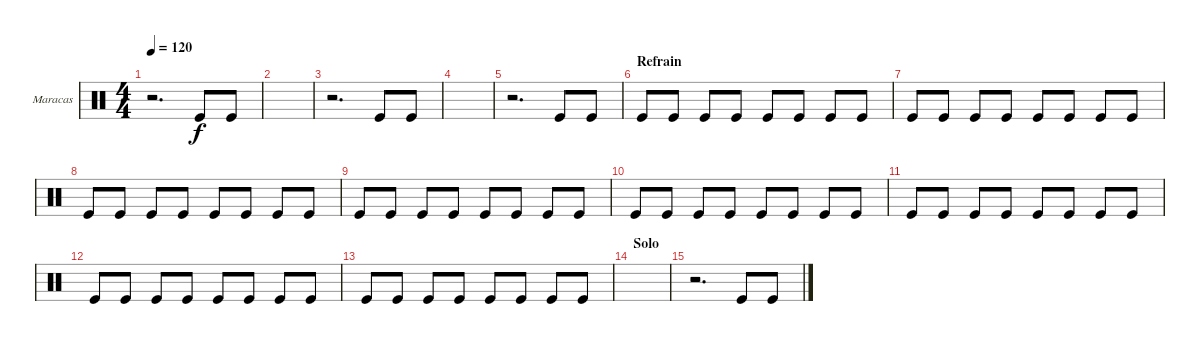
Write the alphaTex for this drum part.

\defaultSystemsLayout 4
\bracketExtendMode groupsimilarinstruments
\firstSystemTrackNameOrientation horizontal
\otherSystemsTrackNameOrientation horizontal
\track ("Maracas" "Maracas") {multiBarRest instrument percussion}
\staff {score}
\articulation defaults
\ts (4 4)
\tempo 120
\clef neutral
\ks c
r.2{d dy f} "Kick (hit)".8 "Kick (hit)".8 |
|
r.2{d} "Kick (hit)".8 "Kick (hit)".8 |
|
r.2{d} "Kick (hit)".8 "Kick (hit)".8 |
\section ("" "Refrain")
"Kick (hit)".8 "Kick (hit)".8 "Kick (hit)".8 "Kick (hit)".8 "Kick (hit)".8 "Kick (hit)".8 "Kick (hit)".8 "Kick (hit)".8 |
"Kick (hit)".8 "Kick (hit)".8 "Kick (hit)".8 "Kick (hit)".8 "Kick (hit)".8 "Kick (hit)".8 "Kick (hit)".8 "Kick (hit)".8 |
"Kick (hit)".8 "Kick (hit)".8 "Kick (hit)".8 "Kick (hit)".8 "Kick (hit)".8 "Kick (hit)".8 "Kick (hit)".8 "Kick (hit)".8 |
"Kick (hit)".8 "Kick (hit)".8 "Kick (hit)".8 "Kick (hit)".8 "Kick (hit)".8 "Kick (hit)".8 "Kick (hit)".8 "Kick (hit)".8 |
"Kick (hit)".8 "Kick (hit)".8 "Kick (hit)".8 "Kick (hit)".8 "Kick (hit)".8 "Kick (hit)".8 "Kick (hit)".8 "Kick (hit)".8 |
"Kick (hit)".8 "Kick (hit)".8 "Kick (hit)".8 "Kick (hit)".8 "Kick (hit)".8 "Kick (hit)".8 "Kick (hit)".8 "Kick (hit)".8 |
"Kick (hit)".8 "Kick (hit)".8 "Kick (hit)".8 "Kick (hit)".8 "Kick (hit)".8 "Kick (hit)".8 "Kick (hit)".8 "Kick (hit)".8 |
"Kick (hit)".8 "Kick (hit)".8 "Kick (hit)".8 "Kick (hit)".8 "Kick (hit)".8 "Kick (hit)".8 "Kick (hit)".8 "Kick (hit)".8 |
\section ("" "Solo")
|
r.2{d} "Kick (hit)".8 "Kick (hit)".8
